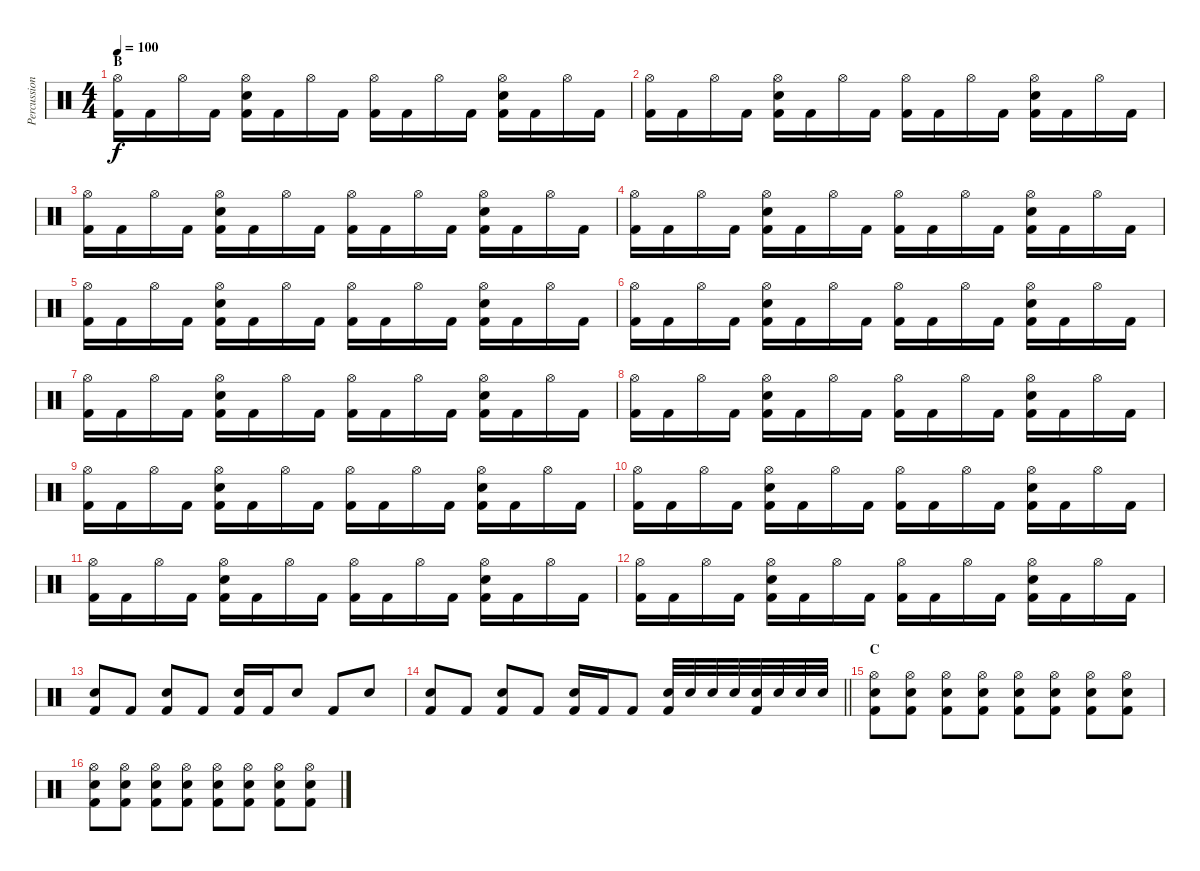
\track ("Percussion" "Percussion") {instrument percussion}
\staff {score}
\articulation defaults
\ts (4 4)
\section ("" "B")
\tempo 100
\clef neutral
\ks c
("Hi-Hat (open)" "Kick (hit) 2").16{dy f} "Kick (hit) 2".16 "Hi-Hat (open)".16 "Kick (hit) 2".16 ("Hi-Hat (open)" "Electric Snare (hit)" "Kick (hit) 2").16 "Kick (hit) 2".16 "Hi-Hat (open)".16 "Kick (hit) 2".16 ("Hi-Hat (open)" "Kick (hit) 2").16 "Kick (hit) 2".16 "Hi-Hat (open)".16 "Kick (hit) 2".16 ("Hi-Hat (open)" "Electric Snare (hit)" "Kick (hit) 2").16 "Kick (hit) 2".16 "Hi-Hat (open)".16 "Kick (hit) 2".16 |
("Hi-Hat (open)" "Kick (hit) 2").16 "Kick (hit) 2".16 "Hi-Hat (open)".16 "Kick (hit) 2".16 ("Hi-Hat (open)" "Electric Snare (hit)" "Kick (hit) 2").16 "Kick (hit) 2".16 "Hi-Hat (open)".16 "Kick (hit) 2".16 ("Hi-Hat (open)" "Kick (hit) 2").16 "Kick (hit) 2".16 "Hi-Hat (open)".16 "Kick (hit) 2".16 ("Hi-Hat (open)" "Electric Snare (hit)" "Kick (hit) 2").16 "Kick (hit) 2".16 "Hi-Hat (open)".16 "Kick (hit) 2".16 |
("Hi-Hat (open)" "Kick (hit) 2").16 "Kick (hit) 2".16 "Hi-Hat (open)".16 "Kick (hit) 2".16 ("Hi-Hat (open)" "Electric Snare (hit)" "Kick (hit) 2").16 "Kick (hit) 2".16 "Hi-Hat (open)".16 "Kick (hit) 2".16 ("Hi-Hat (open)" "Kick (hit) 2").16 "Kick (hit) 2".16 "Hi-Hat (open)".16 "Kick (hit) 2".16 ("Hi-Hat (open)" "Electric Snare (hit)" "Kick (hit) 2").16 "Kick (hit) 2".16 "Hi-Hat (open)".16 "Kick (hit) 2".16 |
("Hi-Hat (open)" "Kick (hit) 2").16 "Kick (hit) 2".16 "Hi-Hat (open)".16 "Kick (hit) 2".16 ("Hi-Hat (open)" "Electric Snare (hit)" "Kick (hit) 2").16 "Kick (hit) 2".16 "Hi-Hat (open)".16 "Kick (hit) 2".16 ("Hi-Hat (open)" "Kick (hit) 2").16 "Kick (hit) 2".16 "Hi-Hat (open)".16 "Kick (hit) 2".16 ("Hi-Hat (open)" "Electric Snare (hit)" "Kick (hit) 2").16 "Kick (hit) 2".16 "Hi-Hat (open)".16 "Kick (hit) 2".16 |
("Hi-Hat (open)" "Kick (hit) 2").16 "Kick (hit) 2".16 "Hi-Hat (open)".16 "Kick (hit) 2".16 ("Hi-Hat (open)" "Electric Snare (hit)" "Kick (hit) 2").16 "Kick (hit) 2".16 "Hi-Hat (open)".16 "Kick (hit) 2".16 ("Hi-Hat (open)" "Kick (hit) 2").16 "Kick (hit) 2".16 "Hi-Hat (open)".16 "Kick (hit) 2".16 ("Hi-Hat (open)" "Electric Snare (hit)" "Kick (hit) 2").16 "Kick (hit) 2".16 "Hi-Hat (open)".16 "Kick (hit) 2".16 |
("Hi-Hat (open)" "Kick (hit) 2").16 "Kick (hit) 2".16 "Hi-Hat (open)".16 "Kick (hit) 2".16 ("Hi-Hat (open)" "Electric Snare (hit)" "Kick (hit) 2").16 "Kick (hit) 2".16 "Hi-Hat (open)".16 "Kick (hit) 2".16 ("Hi-Hat (open)" "Kick (hit) 2").16 "Kick (hit) 2".16 "Hi-Hat (open)".16 "Kick (hit) 2".16 ("Hi-Hat (open)" "Electric Snare (hit)" "Kick (hit) 2").16 "Kick (hit) 2".16 "Hi-Hat (open)".16 "Kick (hit) 2".16 |
("Hi-Hat (open)" "Kick (hit) 2").16 "Kick (hit) 2".16 "Hi-Hat (open)".16 "Kick (hit) 2".16 ("Hi-Hat (open)" "Electric Snare (hit)" "Kick (hit) 2").16 "Kick (hit) 2".16 "Hi-Hat (open)".16 "Kick (hit) 2".16 ("Hi-Hat (open)" "Kick (hit) 2").16 "Kick (hit) 2".16 "Hi-Hat (open)".16 "Kick (hit) 2".16 ("Hi-Hat (open)" "Electric Snare (hit)" "Kick (hit) 2").16 "Kick (hit) 2".16 "Hi-Hat (open)".16 "Kick (hit) 2".16 |
("Hi-Hat (open)" "Kick (hit) 2").16 "Kick (hit) 2".16 "Hi-Hat (open)".16 "Kick (hit) 2".16 ("Hi-Hat (open)" "Electric Snare (hit)" "Kick (hit) 2").16 "Kick (hit) 2".16 "Hi-Hat (open)".16 "Kick (hit) 2".16 ("Hi-Hat (open)" "Kick (hit) 2").16 "Kick (hit) 2".16 "Hi-Hat (open)".16 "Kick (hit) 2".16 ("Hi-Hat (open)" "Electric Snare (hit)" "Kick (hit) 2").16 "Kick (hit) 2".16 "Hi-Hat (open)".16 "Kick (hit) 2".16 |
("Hi-Hat (open)" "Kick (hit) 2").16 "Kick (hit) 2".16 "Hi-Hat (open)".16 "Kick (hit) 2".16 ("Hi-Hat (open)" "Electric Snare (hit)" "Kick (hit) 2").16 "Kick (hit) 2".16 "Hi-Hat (open)".16 "Kick (hit) 2".16 ("Hi-Hat (open)" "Kick (hit) 2").16 "Kick (hit) 2".16 "Hi-Hat (open)".16 "Kick (hit) 2".16 ("Hi-Hat (open)" "Electric Snare (hit)" "Kick (hit) 2").16 "Kick (hit) 2".16 "Hi-Hat (open)".16 "Kick (hit) 2".16 |
("Hi-Hat (open)" "Kick (hit) 2").16 "Kick (hit) 2".16 "Hi-Hat (open)".16 "Kick (hit) 2".16 ("Hi-Hat (open)" "Electric Snare (hit)" "Kick (hit) 2").16 "Kick (hit) 2".16 "Hi-Hat (open)".16 "Kick (hit) 2".16 ("Hi-Hat (open)" "Kick (hit) 2").16 "Kick (hit) 2".16 "Hi-Hat (open)".16 "Kick (hit) 2".16 ("Hi-Hat (open)" "Electric Snare (hit)" "Kick (hit) 2").16 "Kick (hit) 2".16 "Hi-Hat (open)".16 "Kick (hit) 2".16 |
("Hi-Hat (open)" "Kick (hit) 2").16 "Kick (hit) 2".16 "Hi-Hat (open)".16 "Kick (hit) 2".16 ("Hi-Hat (open)" "Electric Snare (hit)" "Kick (hit) 2").16 "Kick (hit) 2".16 "Hi-Hat (open)".16 "Kick (hit) 2".16 ("Hi-Hat (open)" "Kick (hit) 2").16 "Kick (hit) 2".16 "Hi-Hat (open)".16 "Kick (hit) 2".16 ("Hi-Hat (open)" "Electric Snare (hit)" "Kick (hit) 2").16 "Kick (hit) 2".16 "Hi-Hat (open)".16 "Kick (hit) 2".16 |
("Hi-Hat (open)" "Kick (hit) 2").16 "Kick (hit) 2".16 "Hi-Hat (open)".16 "Kick (hit) 2".16 ("Hi-Hat (open)" "Electric Snare (hit)" "Kick (hit) 2").16 "Kick (hit) 2".16 "Hi-Hat (open)".16 "Kick (hit) 2".16 ("Hi-Hat (open)" "Kick (hit) 2").16 "Kick (hit) 2".16 "Hi-Hat (open)".16 "Kick (hit) 2".16 ("Hi-Hat (open)" "Electric Snare (hit)" "Kick (hit) 2").16 "Kick (hit) 2".16 "Hi-Hat (open)".16 "Kick (hit) 2".16 |
("Electric Snare (hit)" "Kick (hit) 2").8 "Kick (hit) 2".8 ("Electric Snare (hit)" "Kick (hit) 2").8 "Kick (hit) 2".8 ("Electric Snare (hit)" "Kick (hit) 2").16 "Kick (hit) 2".16 "Electric Snare (hit)".8 "Kick (hit) 2".8 "Electric Snare (hit)".8 |
\barLineRight lightlight
("Electric Snare (hit)" "Kick (hit) 2").8 "Kick (hit) 2".8 ("Electric Snare (hit)" "Kick (hit) 2").8 "Kick (hit) 2".8 ("Electric Snare (hit)" "Kick (hit) 2").16 "Kick (hit) 2".16 "Kick (hit) 2".8 ("Electric Snare (hit)" "Kick (hit) 2").32 "Electric Snare (hit)".32 "Electric Snare (hit)".32 "Electric Snare (hit)".32 ("Electric Snare (hit)" "Kick (hit) 2").32 "Electric Snare (hit)".32 "Electric Snare (hit)".32 "Electric Snare (hit)".32 |
\section ("" "C")
("Hi-Hat (open)" "Electric Snare (hit)" "Kick (hit) 2").8 ("Hi-Hat (open)" "Electric Snare (hit)" "Kick (hit) 2").8 ("Hi-Hat (open)" "Electric Snare (hit)" "Kick (hit) 2").8 ("Hi-Hat (open)" "Electric Snare (hit)" "Kick (hit) 2").8 ("Hi-Hat (open)" "Electric Snare (hit)" "Kick (hit) 2").8 ("Hi-Hat (open)" "Electric Snare (hit)" "Kick (hit) 2").8 ("Hi-Hat (open)" "Electric Snare (hit)" "Kick (hit) 2").8 ("Hi-Hat (open)" "Electric Snare (hit)" "Kick (hit) 2").8 |
("Hi-Hat (open)" "Electric Snare (hit)" "Kick (hit) 2").8 ("Hi-Hat (open)" "Electric Snare (hit)" "Kick (hit) 2").8 ("Hi-Hat (open)" "Electric Snare (hit)" "Kick (hit) 2").8 ("Hi-Hat (open)" "Electric Snare (hit)" "Kick (hit) 2").8 ("Hi-Hat (open)" "Electric Snare (hit)" "Kick (hit) 2").8 ("Hi-Hat (open)" "Electric Snare (hit)" "Kick (hit) 2").8 ("Hi-Hat (open)" "Electric Snare (hit)" "Kick (hit) 2").8 ("Hi-Hat (open)" "Electric Snare (hit)" "Kick (hit) 2").8
